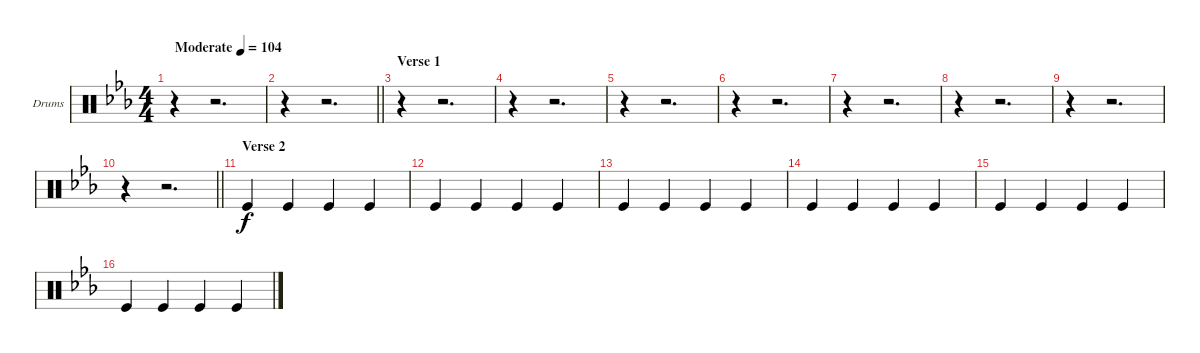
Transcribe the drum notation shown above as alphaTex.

\bracketExtendMode groupsimilarinstruments
\firstSystemTrackNameOrientation horizontal
\otherSystemsTrackNameOrientation horizontal
\track ("Drumkit" "Drums") {instrument percussion}
\staff {score}
\articulation defaults
\ts (4 4)
\beaming (8 2 2 2 2)
\tempo (104 "Moderate")
\clef neutral
\ks eb
r.4{dy f} r.2{d} |
\barLineRight lightlight
r.4 r.2{d} |
\section ("" "Verse 1")
r.4 r.2{d} |
r.4 r.2{d} |
r.4 r.2{d} |
r.4 r.2{d} |
r.4 r.2{d} |
r.4 r.2{d} |
r.4 r.2{d} |
\barLineRight lightlight
r.4 r.2{d} |
\section ("" "Verse 2")
"Kick (hit)".4 "Kick (hit)".4 "Kick (hit)".4 "Kick (hit)".4 |
"Kick (hit)".4 "Kick (hit)".4 "Kick (hit)".4 "Kick (hit)".4 |
"Kick (hit)".4 "Kick (hit)".4 "Kick (hit)".4 "Kick (hit)".4 |
"Kick (hit)".4 "Kick (hit)".4 "Kick (hit)".4 "Kick (hit)".4 |
"Kick (hit)".4 "Kick (hit)".4 "Kick (hit)".4 "Kick (hit)".4 |
"Kick (hit)".4 "Kick (hit)".4 "Kick (hit)".4 "Kick (hit)".4
